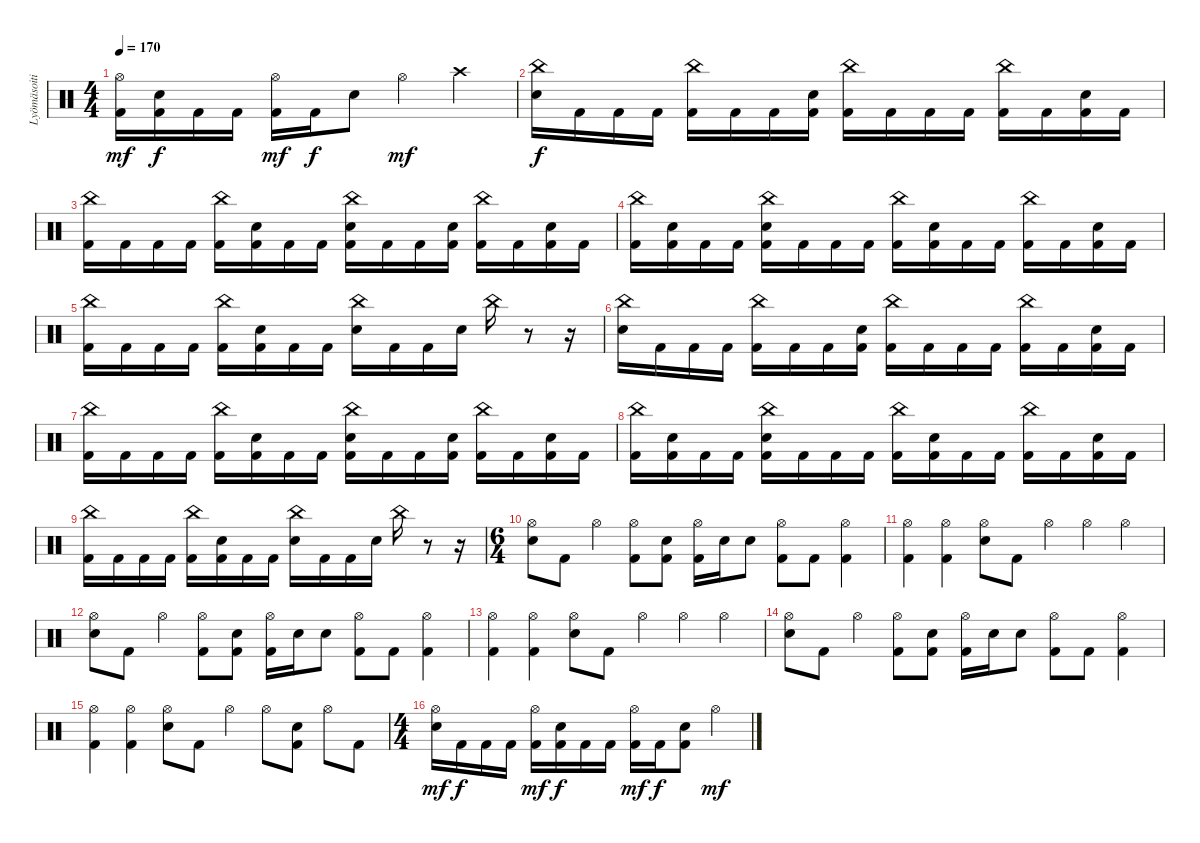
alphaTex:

\track ("Lyömäsoitin" "Lyömäsoiti") {instrument percussion}
\staff {score}
\articulation defaults
\ts (4 4)
\tempo 170
\clef neutral
\ks c
("Hi-Hat (open)" "Kick (hit) 2").16{dy mf} ("Kick (hit) 2" "Electric Snare (hit)").16{dy f} "Kick (hit) 2".16 "Kick (hit) 2".16 ("Kick (hit) 2" "Hi-Hat (open)").16{dy mf} "Kick (hit) 2".16{dy f} "Electric Snare (hit)".8 "Hi-Hat (open)".4{dy mf} "Crash high (hit)".4 |
("China (hit)" "Electric Snare (hit)").16{dy f} "Kick (hit) 2".16 "Kick (hit) 2".16 "Kick (hit) 2".16 ("China (hit)" "Kick (hit) 2").16 "Kick (hit) 2".16 "Kick (hit) 2".16 ("Electric Snare (hit)" "Kick (hit) 2").16 ("China (hit)" "Kick (hit) 2").16 "Kick (hit) 2".16 "Kick (hit) 2".16 "Kick (hit) 2".16 ("China (hit)" "Kick (hit) 2").16 "Kick (hit) 2".16 ("Electric Snare (hit)" "Kick (hit) 2").16 "Kick (hit) 2".16 |
("China (hit)" "Kick (hit) 2").16 "Kick (hit) 2".16 "Kick (hit) 2".16 "Kick (hit) 2".16 ("China (hit)" "Kick (hit) 2").16 ("Electric Snare (hit)" "Kick (hit) 2").16 "Kick (hit) 2".16 "Kick (hit) 2".16 ("China (hit)" "Electric Snare (hit)" "Kick (hit) 2").16 "Kick (hit) 2".16 "Kick (hit) 2".16 ("Electric Snare (hit)" "Kick (hit) 2").16 ("China (hit)" "Kick (hit) 2").16 "Kick (hit) 2".16 ("Electric Snare (hit)" "Kick (hit) 2").16 "Kick (hit) 2".16 |
("China (hit)" "Kick (hit) 2").16 ("Electric Snare (hit)" "Kick (hit) 2").16 "Kick (hit) 2".16 "Kick (hit) 2".16 ("Kick (hit) 2" "China (hit)" "Electric Snare (hit)").16 "Kick (hit) 2".16 "Kick (hit) 2".16 "Kick (hit) 2".16 ("Kick (hit) 2" "China (hit)").16 ("Kick (hit) 2" "Electric Snare (hit)").16 "Kick (hit) 2".16 "Kick (hit) 2".16 ("Kick (hit) 2" "China (hit)").16 "Kick (hit) 2".16 ("Kick (hit) 2" "Electric Snare (hit)").16 "Kick (hit) 2".16 |
("Kick (hit) 2" "China (hit)").16 "Kick (hit) 2".16 "Kick (hit) 2".16 "Kick (hit) 2".16 ("Kick (hit) 2" "China (hit)").16 ("Kick (hit) 2" "Electric Snare (hit)").16 "Kick (hit) 2".16 "Kick (hit) 2".16 ("China (hit)" "Electric Snare (hit)").16 "Kick (hit) 2".16 "Kick (hit) 2".16 "Electric Snare (hit)".16 "China (hit)".16 r.8 r.16 |
("China (hit)" "Electric Snare (hit)").16 "Kick (hit) 2".16 "Kick (hit) 2".16 "Kick (hit) 2".16 ("China (hit)" "Kick (hit) 2").16 "Kick (hit) 2".16 "Kick (hit) 2".16 ("Electric Snare (hit)" "Kick (hit) 2").16 ("China (hit)" "Kick (hit) 2").16 "Kick (hit) 2".16 "Kick (hit) 2".16 "Kick (hit) 2".16 ("China (hit)" "Kick (hit) 2").16 "Kick (hit) 2".16 ("Electric Snare (hit)" "Kick (hit) 2").16 "Kick (hit) 2".16 |
("China (hit)" "Kick (hit) 2").16 "Kick (hit) 2".16 "Kick (hit) 2".16 "Kick (hit) 2".16 ("China (hit)" "Kick (hit) 2").16 ("Electric Snare (hit)" "Kick (hit) 2").16 "Kick (hit) 2".16 "Kick (hit) 2".16 ("China (hit)" "Electric Snare (hit)" "Kick (hit) 2").16 "Kick (hit) 2".16 "Kick (hit) 2".16 ("Electric Snare (hit)" "Kick (hit) 2").16 ("China (hit)" "Kick (hit) 2").16 "Kick (hit) 2".16 ("Electric Snare (hit)" "Kick (hit) 2").16 "Kick (hit) 2".16 |
("China (hit)" "Kick (hit) 2").16 ("Electric Snare (hit)" "Kick (hit) 2").16 "Kick (hit) 2".16 "Kick (hit) 2".16 ("Kick (hit) 2" "China (hit)" "Electric Snare (hit)").16 "Kick (hit) 2".16 "Kick (hit) 2".16 "Kick (hit) 2".16 ("Kick (hit) 2" "China (hit)").16 ("Kick (hit) 2" "Electric Snare (hit)").16 "Kick (hit) 2".16 "Kick (hit) 2".16 ("Kick (hit) 2" "China (hit)").16 "Kick (hit) 2".16 ("Kick (hit) 2" "Electric Snare (hit)").16 "Kick (hit) 2".16 |
("Kick (hit) 2" "China (hit)").16 "Kick (hit) 2".16 "Kick (hit) 2".16 "Kick (hit) 2".16 ("Kick (hit) 2" "China (hit)").16 ("Kick (hit) 2" "Electric Snare (hit)").16 "Kick (hit) 2".16 "Kick (hit) 2".16 ("China (hit)" "Electric Snare (hit)").16 "Kick (hit) 2".16 "Kick (hit) 2".16 "Electric Snare (hit)".16 "China (hit)".16 r.8 r.16 |
\ts (6 4)
("Hi-Hat (open)" "Electric Snare (hit)").8 "Kick (hit) 2".8 "Hi-Hat (open)".4 ("Kick (hit) 2" "Hi-Hat (open)").8 ("Electric Snare (hit)" "Kick (hit) 2").8 ("Kick (hit) 2" "Hi-Hat (open)").16 "Electric Snare (hit)".16 "Electric Snare (hit)".8 ("Hi-Hat (open)" "Kick (hit) 2").8 "Kick (hit) 2".8 ("Hi-Hat (open)" "Kick (hit) 2").4 |
("Hi-Hat (open)" "Kick (hit) 2").4 ("Hi-Hat (open)" "Kick (hit) 2").4 ("Hi-Hat (open)" "Electric Snare (hit)").8 "Kick (hit) 2".8 "Hi-Hat (open)".4 "Hi-Hat (open)".4 "Hi-Hat (open)".4 |
("Hi-Hat (open)" "Electric Snare (hit)").8 "Kick (hit) 2".8 "Hi-Hat (open)".4 ("Kick (hit) 2" "Hi-Hat (open)").8 ("Electric Snare (hit)" "Kick (hit) 2").8 ("Kick (hit) 2" "Hi-Hat (open)").16 "Electric Snare (hit)".16 "Electric Snare (hit)".8 ("Hi-Hat (open)" "Kick (hit) 2").8 "Kick (hit) 2".8 ("Hi-Hat (open)" "Kick (hit) 2").4 |
("Hi-Hat (open)" "Kick (hit) 2").4 ("Hi-Hat (open)" "Kick (hit) 2").4 ("Hi-Hat (open)" "Electric Snare (hit)").8 "Kick (hit) 2".8 "Hi-Hat (open)".4 "Hi-Hat (open)".4 "Hi-Hat (open)".4 |
("Hi-Hat (open)" "Electric Snare (hit)").8 "Kick (hit) 2".8 "Hi-Hat (open)".4 ("Kick (hit) 2" "Hi-Hat (open)").8 ("Electric Snare (hit)" "Kick (hit) 2").8 ("Kick (hit) 2" "Hi-Hat (open)").16 "Electric Snare (hit)".16 "Electric Snare (hit)".8 ("Hi-Hat (open)" "Kick (hit) 2").8 "Kick (hit) 2".8 ("Hi-Hat (open)" "Kick (hit) 2").4 |
("Hi-Hat (open)" "Kick (hit) 2").4 ("Hi-Hat (open)" "Kick (hit) 2").4 ("Hi-Hat (open)" "Electric Snare (hit)").8 "Kick (hit) 2".8 "Hi-Hat (open)".4 "Hi-Hat (open)".8 ("Electric Snare (hit)" "Kick (hit) 2").8 "Hi-Hat (open)".8 "Kick (hit) 2".8 |
\ts (4 4)
("Hi-Hat (open)" "Electric Snare (hit)").16{dy mf} "Kick (hit) 2".16{dy f} "Kick (hit) 2".16 "Kick (hit) 2".16 ("Hi-Hat (open)" "Kick (hit) 2").16{dy mf} ("Electric Snare (hit)" "Kick (hit) 2").16{dy f} "Kick (hit) 2".16 "Kick (hit) 2".16 ("Hi-Hat (open)" "Kick (hit) 2").16{dy mf} "Kick (hit) 2".16{dy f} ("Electric Snare (hit)" "Kick (hit) 2").8 "Hi-Hat (open)".4{dy mf}
